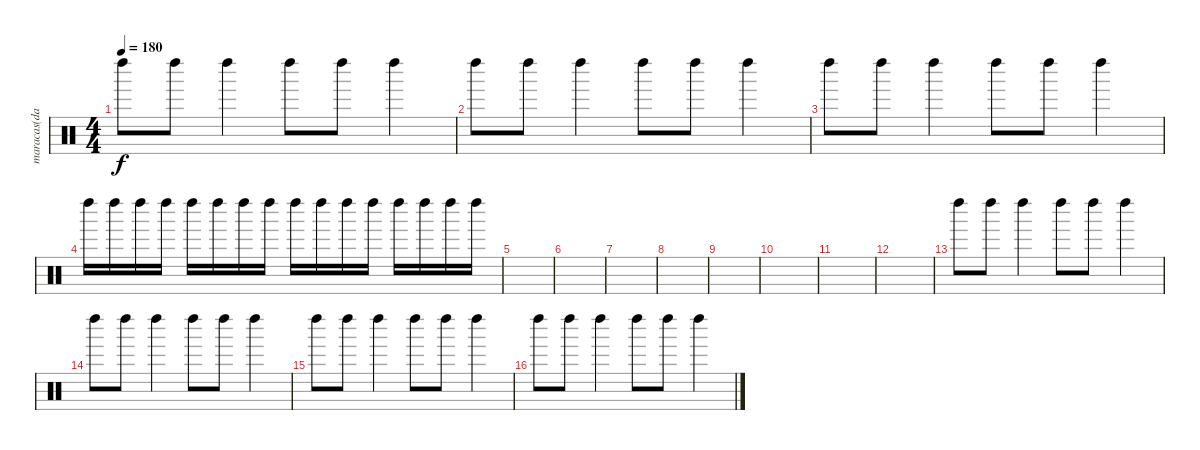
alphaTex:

\track ("maracas(dave)" "maracas(da") {instrument percussion}
\staff {score}
\articulation defaults
\ts (4 4)
\tempo 180
\clef neutral
\ks c "Left Maraca (hit)".8{dy f} "Left Maraca (hit)".8 "Left Maraca (hit)".4 "Left Maraca (hit)".8 "Left Maraca (hit)".8 "Left Maraca (hit)".4
|
"Left Maraca (hit)".8 "Left Maraca (hit)".8 "Left Maraca (hit)".4 "Left Maraca (hit)".8 "Left Maraca (hit)".8 "Left Maraca (hit)".4 |
"Left Maraca (hit)".8 "Left Maraca (hit)".8 "Left Maraca (hit)".4 "Left Maraca (hit)".8 "Left Maraca (hit)".8 "Left Maraca (hit)".4 |
"Left Maraca (hit)".16 "Left Maraca (hit)".16 "Left Maraca (hit)".16 "Left Maraca (hit)".16 "Left Maraca (hit)".16 "Left Maraca (hit)".16 "Left Maraca (hit)".16 "Left Maraca (hit)".16 "Left Maraca (hit)".16 "Left Maraca (hit)".16 "Left Maraca (hit)".16 "Left Maraca (hit)".16 "Left Maraca (hit)".16 "Left Maraca (hit)".16 "Left Maraca (hit)".16 "Left Maraca (hit)".16 |
|
|
|
|
|
|
|
|
"Left Maraca (hit)".8 "Left Maraca (hit)".8 "Left Maraca (hit)".4 "Left Maraca (hit)".8 "Left Maraca (hit)".8 "Left Maraca (hit)".4 |
"Left Maraca (hit)".8 "Left Maraca (hit)".8 "Left Maraca (hit)".4 "Left Maraca (hit)".8 "Left Maraca (hit)".8 "Left Maraca (hit)".4 |
"Left Maraca (hit)".8 "Left Maraca (hit)".8 "Left Maraca (hit)".4 "Left Maraca (hit)".8 "Left Maraca (hit)".8 "Left Maraca (hit)".4 |
"Left Maraca (hit)".8 "Left Maraca (hit)".8 "Left Maraca (hit)".4 "Left Maraca (hit)".8 "Left Maraca (hit)".8 "Left Maraca (hit)".4
